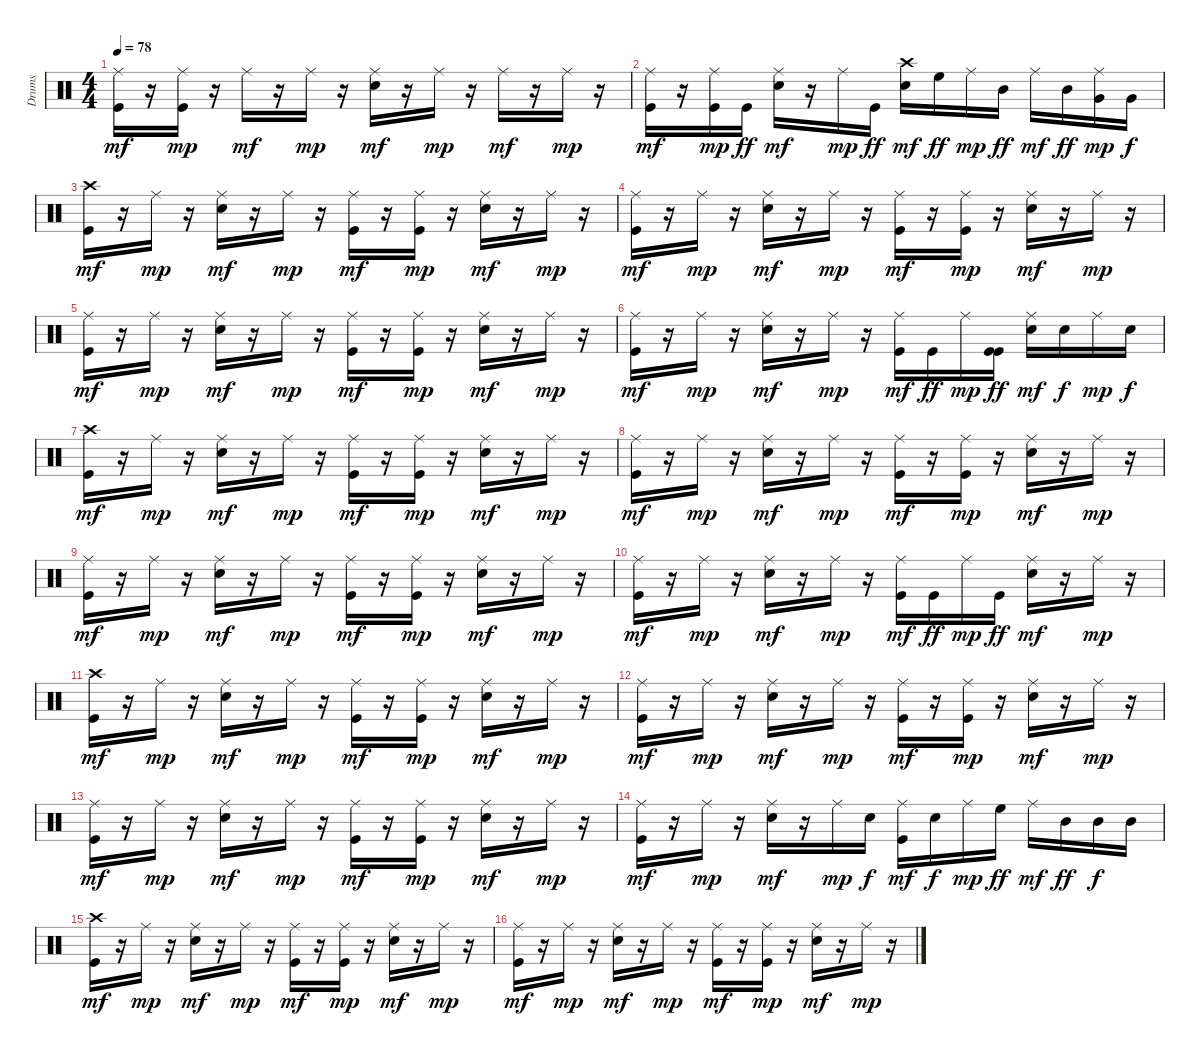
\track ("Drums" "Drums") {instrument percussion}
\staff {score}
\articulation defaults
\ts (4 4)
\tempo 78
\clef neutral
\ks c
("Kick (hit)" "Ride (middle)").16{dy mf} r.16 ("Kick (hit)" "Ride (middle)").16{dy mp} r.16 "Ride (middle)".16{dy mf} r.16 "Ride (middle)".16{dy mp} r.16 ("Snare (hit) 2" "Ride (middle)").16{dy mf} r.16 "Ride (middle)".16{dy mp} r.16 "Ride (middle)".16{dy mf} r.16 "Ride (middle)".16{dy mp} r.16 |
("Kick (hit)" "Ride (middle)").16{dy mf} r.16 ("Kick (hit)" "Ride (middle)").16{dy mp} "Kick (hit)".16{dy ff} ("Snare (hit) 2" "Ride (middle)").16{dy mf} r.16 "Ride (middle)".16{dy mp} "Kick (hit)".16{dy ff} ("Snare (hit) 2" "Crash high (hit)").16{dy mf} "High Floor Tom (hit)".16{dy ff} "Ride (middle)".16{dy mp} "Mid Tom (hit)".16{dy ff} "Ride (middle)".16{dy mf} "Mid Tom (hit)".16{dy ff} ("Very Low Tom (hit)" "Ride (middle)").16{dy mp} "Very Low Tom (hit)".16{dy f} |
("Kick (hit)" "Crash high (hit)").16{dy mf} r.16 "Ride (middle)".16{dy mp} r.16 ("Snare (hit) 2" "Ride (middle)").16{dy mf} r.16 "Ride (middle)".16{dy mp} r.16 ("Kick (hit)" "Ride (middle)").16{dy mf} r.16 ("Kick (hit)" "Ride (middle)").16{dy mp} r.16 ("Snare (hit) 2" "Ride (middle)").16{dy mf} r.16 "Ride (middle)".16{dy mp} r.16 |
("Kick (hit)" "Ride (middle)").16{dy mf} r.16 "Ride (middle)".16{dy mp} r.16 ("Snare (hit) 2" "Ride (middle)").16{dy mf} r.16 "Ride (middle)".16{dy mp} r.16 ("Kick (hit)" "Ride (middle)").16{dy mf} r.16 ("Kick (hit)" "Ride (middle)").16{dy mp} r.16 ("Snare (hit) 2" "Ride (middle)").16{dy mf} r.16 "Ride (middle)".16{dy mp} r.16 |
("Kick (hit)" "Ride (middle)").16{dy mf} r.16 "Ride (middle)".16{dy mp} r.16 ("Snare (hit) 2" "Ride (middle)").16{dy mf} r.16 "Ride (middle)".16{dy mp} r.16 ("Kick (hit)" "Ride (middle)").16{dy mf} r.16 ("Kick (hit)" "Ride (middle)").16{dy mp} r.16 ("Snare (hit) 2" "Ride (middle)").16{dy mf} r.16 "Ride (middle)".16{dy mp} r.16 |
("Kick (hit)" "Ride (middle)").16{dy mf} r.16 "Ride (middle)".16{dy mp} r.16 ("Snare (hit) 2" "Ride (middle)").16{dy mf} r.16 "Ride (middle)".16{dy mp} r.16 ("Kick (hit)" "Ride (middle)").16{dy mf} "Kick (hit)".16{dy ff} "Ride (middle)".16{dy mp} ("Kick (hit)" "Kick (hit)").16{dy ff} ("Snare (hit) 2" "Ride (middle)").16{dy mf} "Snare (hit) 2".16{dy f} "Ride (middle)".16{dy mp} "Snare (hit) 2".16{dy f} |
("Kick (hit)" "Crash high (hit)").16{dy mf} r.16 "Ride (middle)".16{dy mp} r.16 ("Snare (hit) 2" "Ride (middle)").16{dy mf} r.16 "Ride (middle)".16{dy mp} r.16 ("Kick (hit)" "Ride (middle)").16{dy mf} r.16 ("Kick (hit)" "Ride (middle)").16{dy mp} r.16 ("Snare (hit) 2" "Ride (middle)").16{dy mf} r.16 "Ride (middle)".16{dy mp} r.16 |
("Kick (hit)" "Ride (middle)").16{dy mf} r.16 "Ride (middle)".16{dy mp} r.16 ("Snare (hit) 2" "Ride (middle)").16{dy mf} r.16 "Ride (middle)".16{dy mp} r.16 ("Kick (hit)" "Ride (middle)").16{dy mf} r.16 ("Kick (hit)" "Ride (middle)").16{dy mp} r.16 ("Snare (hit) 2" "Ride (middle)").16{dy mf} r.16 "Ride (middle)".16{dy mp} r.16 |
("Kick (hit)" "Ride (middle)").16{dy mf} r.16 "Ride (middle)".16{dy mp} r.16 ("Snare (hit) 2" "Ride (middle)").16{dy mf} r.16 "Ride (middle)".16{dy mp} r.16 ("Kick (hit)" "Ride (middle)").16{dy mf} r.16 ("Kick (hit)" "Ride (middle)").16{dy mp} r.16 ("Snare (hit) 2" "Ride (middle)").16{dy mf} r.16 "Ride (middle)".16{dy mp} r.16 |
("Kick (hit)" "Ride (middle)").16{dy mf} r.16 "Ride (middle)".16{dy mp} r.16 ("Snare (hit) 2" "Ride (middle)").16{dy mf} r.16 "Ride (middle)".16{dy mp} r.16 ("Kick (hit)" "Ride (middle)").16{dy mf} "Kick (hit)".16{dy ff} "Ride (middle)".16{dy mp} "Kick (hit)".16{dy ff} ("Snare (hit) 2" "Ride (middle)").16{dy mf} r.16 "Ride (middle)".16{dy mp} r.16 |
("Kick (hit)" "Crash high (hit)").16{dy mf} r.16 "Ride (middle)".16{dy mp} r.16 ("Snare (hit) 2" "Ride (middle)").16{dy mf} r.16 "Ride (middle)".16{dy mp} r.16 ("Kick (hit)" "Ride (middle)").16{dy mf} r.16 ("Kick (hit)" "Ride (middle)").16{dy mp} r.16 ("Snare (hit) 2" "Ride (middle)").16{dy mf} r.16 "Ride (middle)".16{dy mp} r.16 |
("Kick (hit)" "Ride (middle)").16{dy mf} r.16 "Ride (middle)".16{dy mp} r.16 ("Snare (hit) 2" "Ride (middle)").16{dy mf} r.16 "Ride (middle)".16{dy mp} r.16 ("Kick (hit)" "Ride (middle)").16{dy mf} r.16 ("Kick (hit)" "Ride (middle)").16{dy mp} r.16 ("Snare (hit) 2" "Ride (middle)").16{dy mf} r.16 "Ride (middle)".16{dy mp} r.16 |
("Kick (hit)" "Ride (middle)").16{dy mf} r.16 "Ride (middle)".16{dy mp} r.16 ("Snare (hit) 2" "Ride (middle)").16{dy mf} r.16 "Ride (middle)".16{dy mp} r.16 ("Kick (hit)" "Ride (middle)").16{dy mf} r.16 ("Kick (hit)" "Ride (middle)").16{dy mp} r.16 ("Snare (hit) 2" "Ride (middle)").16{dy mf} r.16 "Ride (middle)".16{dy mp} r.16 |
("Kick (hit)" "Ride (middle)").16{dy mf} r.16 "Ride (middle)".16{dy mp} r.16 ("Snare (hit) 2" "Ride (middle)").16{dy mf} r.16 "Ride (middle)".16{dy mp} "Snare (hit) 2".16{dy f} ("Kick (hit)" "Ride (middle)").16{dy mf} "Snare (hit) 2".16{dy f} "Ride (middle)".16{dy mp} "High Floor Tom (hit)".16{dy ff} "Ride (middle)".16{dy mf} "Mid Tom (hit)".16{dy ff} "Mid Tom (hit)".16{dy f} "Mid Tom (hit)".16 |
("Kick (hit)" "Crash high (hit)").16{dy mf} r.16 "Ride (middle)".16{dy mp} r.16 ("Snare (hit) 2" "Ride (middle)").16{dy mf} r.16 "Ride (middle)".16{dy mp} r.16 ("Kick (hit)" "Ride (middle)").16{dy mf} r.16 ("Kick (hit)" "Ride (middle)").16{dy mp} r.16 ("Snare (hit) 2" "Ride (middle)").16{dy mf} r.16 "Ride (middle)".16{dy mp} r.16 |
("Kick (hit)" "Ride (middle)").16{dy mf} r.16 "Ride (middle)".16{dy mp} r.16 ("Snare (hit) 2" "Ride (middle)").16{dy mf} r.16 "Ride (middle)".16{dy mp} r.16 ("Kick (hit)" "Ride (middle)").16{dy mf} r.16 ("Kick (hit)" "Ride (middle)").16{dy mp} r.16 ("Snare (hit) 2" "Ride (middle)").16{dy mf} r.16 "Ride (middle)".16{dy mp} r.16
